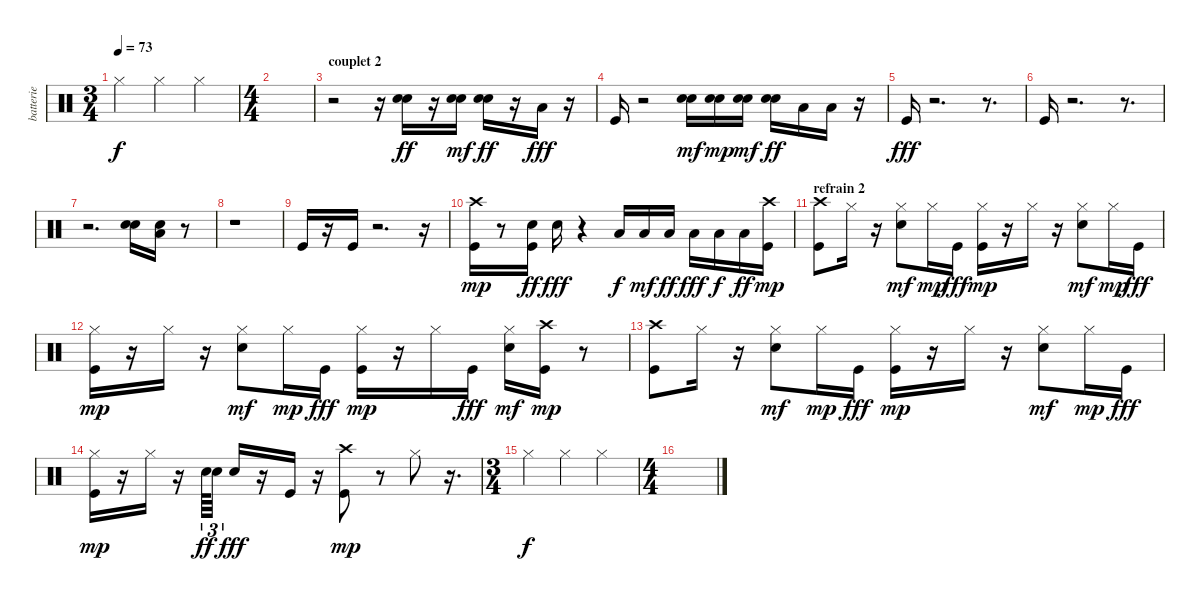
\track ("batterie" "batterie") {instrument percussion}
\staff {score}
\articulation defaults
\ts (3 4)
\tempo 73
\clef neutral
\ks c "Hi-Hat (closed)".4{dy f} "Hi-Hat (closed)".4 "Hi-Hat (closed)".4
|
\ts (4 4)
|
\section ("" "couplet 2")
r.2 r.16 ("Snare (hit) 2" "Electric Snare (hit)").16{dy ff} r.16 ("Snare (hit) 2" "Electric Snare (hit)").16{dy mf} ("Snare (hit) 2" "Electric Snare (hit)").16{dy ff} r.16 "Low Floor Tom (hit)".16{dy fff} r.16 |
"Kick (hit)".16 r.2 ("Snare (hit) 2" "Electric Snare (hit)").16{dy mf} ("Snare (hit) 2" "Electric Snare (hit)").16{dy mp} ("Snare (hit) 2" "Electric Snare (hit)").16{dy mf} ("Snare (hit) 2" "Electric Snare (hit)").16{dy ff} "Low Floor Tom (hit)".16 "Low Floor Tom (hit)".16 r.16 |
"Kick (hit)".16{dy fff} r.2{d} r.8{d} |
"Kick (hit)".16 r.2{d} r.8{d} |
r.2{d} ("Snare (hit) 2" "Electric Snare (hit)").16 ("Electric Snare (hit)" "Low Floor Tom (hit)").16 r.8 |
r.1 |
"Kick (hit)".16 r.16 "Kick (hit)".16 r.2{d} r.16 |
("Kick (hit)" "Crash high (hit)").16{dy mp} r.8 ("Kick (hit)" "Snare (hit) 2").16{dy ff} "Snare (hit) 2".16{dy fff} r.4 "Low Floor Tom (hit)".16{dy f} "Low Floor Tom (hit)".16{dy mf} "Low Floor Tom (hit)".16{dy ff} "Low Floor Tom (hit)".16{dy fff} "Low Floor Tom (hit)".16{dy f} "Low Floor Tom (hit)".16{dy ff} ("Kick (hit)" "Crash high (hit)").16{dy mp} |
\section ("" "refrain 2")
("Kick (hit)" "Crash high (hit)").8 "Hi-Hat (closed)".16 r.16 ("Snare (hit) 2" "Hi-Hat (closed)").8{dy mf} "Hi-Hat (closed)".16{dy mp} "Kick (hit)".16{dy fff} ("Kick (hit)" "Hi-Hat (closed)").16{dy mp} r.16 "Hi-Hat (closed)".16 r.16 ("Snare (hit) 2" "Hi-Hat (closed)").8{dy mf} "Hi-Hat (closed)".16{dy mp} "Kick (hit)".16{dy fff} |
("Kick (hit)" "Hi-Hat (closed)").16{dy mp} r.16 "Hi-Hat (closed)".16 r.16 ("Snare (hit) 2" "Hi-Hat (closed)").8{dy mf} "Hi-Hat (closed)".16{dy mp} "Kick (hit)".16{dy fff} ("Kick (hit)" "Hi-Hat (closed)").16{dy mp} r.16 "Hi-Hat (closed)".16 "Kick (hit)".16{dy fff} ("Snare (hit) 2" "Hi-Hat (closed)").16{dy mf} ("Kick (hit)" "Crash high (hit)").16{dy mp} r.8 |
("Kick (hit)" "Crash high (hit)").8 "Hi-Hat (closed)".16 r.16 ("Snare (hit) 2" "Hi-Hat (closed)").8{dy mf} "Hi-Hat (closed)".16{dy mp} "Kick (hit)".16{dy fff} ("Kick (hit)" "Hi-Hat (closed)").16{dy mp} r.16 "Hi-Hat (closed)".16 r.16 ("Snare (hit) 2" "Hi-Hat (closed)").8{dy mf} "Hi-Hat (closed)".16{dy mp} "Kick (hit)".16{dy fff} |
("Kick (hit)" "Hi-Hat (closed)").16{dy mp} r.16 "Hi-Hat (closed)".16 r.16 "Snare (hit) 2".64{tu (3 2) dy ff} "Snare (hit) 2".32{tu (3 2)} "Snare (hit) 2".16{dy fff} r.16 "Kick (hit)".16 r.16 ("Kick (hit)" "Crash high (hit)").8{dy mp} r.8 "Hi-Hat (closed)".8 r.16{d} |
\ts (3 4)
"Hi-Hat (closed)".4{dy f} "Hi-Hat (closed)".4 "Hi-Hat (closed)".4 |
\ts (4 4)
